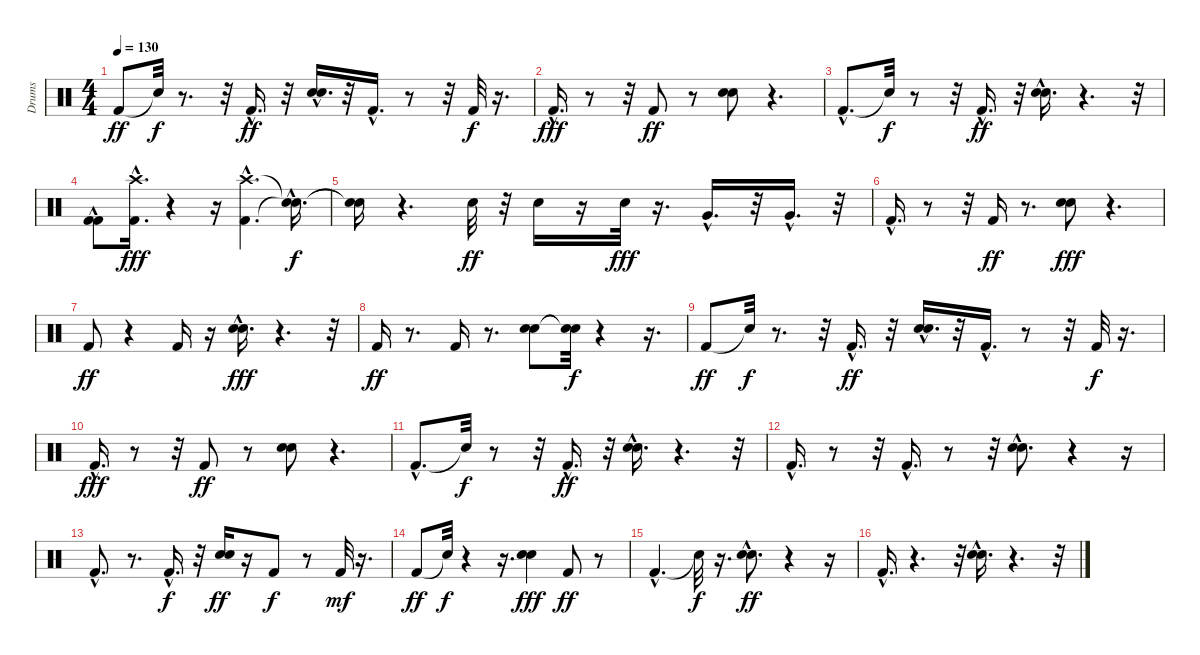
\track ("Drums" "Drums") {instrument percussion}
\staff {score}
\articulation defaults
\ts (4 4)
\tempo 130
\clef neutral
\ks c "Kick (hit) 2".8{dy ff} "Snare (hit)"{t}.32{dy f}
r.8{d} r.32 "Kick (hit) 2"{hac}.16{d dy ff} r.32 ("Hand Clap (hit)"{hac} "Snare (hit) 2").16{d} r.32 "Kick (hit) 2"{hac}.16{d} r.8 r.32 "Kick (hit) 2".32{dy f} r.16{d} |
"Kick (hit) 2"{hac}.16{d dy fff} r.8 r.32 "Kick (hit) 2".8{dy ff} r.8 ("Hand Clap (hit)" "Snare (hit) 2").8 r.4{d} |
"Kick (hit) 2"{hac}.8{d} "Snare (hit)"{t}.32{dy f} r.8 r.32 "Kick (hit) 2"{hac}.16{d dy ff} r.32 ("Hand Clap (hit)" "Snare (hit) 2"{hac}).16{d} r.4{d} r.32 |
("Kick (hit) 2" "Kick (hit) 2"{hac}).8 ("Kick (hit) 2"{hac} "Crash high (hit)").16{d dy fff} r.4 r.16 ("Crash high (hit)"{hac} "Kick (hit) 2"{hac}).4{d} ("Snare (hit)"{hac t} "Snare (hit)"{hac t}).16{d dy f} |
("Snare (hit)"{t} "Snare (hit)"{t}).16 r.4{d} "Electric Snare (hit)".32{dy ff} r.32 "Electric Snare (hit)".16 r.16 "Electric Snare (hit)".32{dy fff} r.16{d} "Very Low Tom (hit)"{hac}.16{d} r.32 "Very Low Tom (hit)"{hac}.16{d} r.32 |
"Kick (hit) 2"{hac}.16{d} r.8 r.32 "Kick (hit) 2".16{dy ff} r.8{d} ("Hand Clap (hit)" "Snare (hit) 2").8{dy fff} r.4{d} |
"Kick (hit) 2".8{dy ff} r.4 "Kick (hit) 2".16 r.16 ("Snare (hit) 2"{hac} "Hand Clap (hit)"{hac}).16{d dy fff} r.4{d} r.32 |
"Kick (hit) 2".16{dy ff} r.8{d} "Kick (hit) 2".16 r.8{d} ("Hand Clap (hit)" "Snare (hit) 2").8 ("Snare (hit)"{t} "Snare (hit)"{t}).32{dy f} r.4 r.16{d} |
"Kick (hit) 2".8{dy ff} "Snare (hit)"{t}.32{dy f} r.8{d} r.32 "Kick (hit) 2"{hac}.16{d dy ff} r.32 ("Hand Clap (hit)"{hac} "Snare (hit) 2").16{d} r.32 "Kick (hit) 2"{hac}.16{d} r.8 r.32 "Kick (hit) 2".32{dy f} r.16{d} |
"Kick (hit) 2"{hac}.16{d dy fff} r.8 r.32 "Kick (hit) 2".8{dy ff} r.8 ("Hand Clap (hit)" "Snare (hit) 2").8 r.4{d} |
"Kick (hit) 2"{hac}.8{d} "Snare (hit)"{t}.32{dy f} r.8 r.32 "Kick (hit) 2"{hac}.16{d dy ff} r.32 ("Hand Clap (hit)" "Snare (hit) 2"{hac}).16{d} r.4{d} r.32 |
"Kick (hit) 2"{hac}.16{d} r.8 r.32 "Kick (hit) 2"{hac}.16{d} r.8 r.32 ("Hand Clap (hit)"{hac} "Snare (hit) 2"{hac}).8{d} r.4 r.16 |
"Kick (hit) 2"{hac}.8{d} r.8{d} "Kick (hit) 2"{hac}.16{d dy f} r.32 ("Hand Clap (hit)" "Snare (hit) 2").16{dy ff} r.16 "Kick (hit) 2".8{dy f} r.8 "Kick (hit) 2".32{dy mf} r.16{d} |
"Kick (hit) 2".8{dy ff} "Snare (hit)"{t}.32{dy f} r.4 r.16{d} ("Snare (hit) 2" "Hand Clap (hit)").4{dy fff} "Kick (hit) 2".8{dy ff} r.8 |
"Kick (hit) 2"{hac}.4{d} "Snare (hit)"{t}.32{dy f} r.16{d} ("Hand Clap (hit)"{hac} "Snare (hit) 2"{hac}).8{d dy ff} r.4 r.16 |
"Kick (hit) 2"{hac}.16{d} r.4{d} r.32 ("Hand Clap (hit)"{hac} "Snare (hit) 2"{hac}).16{d} r.4{d} r.32
